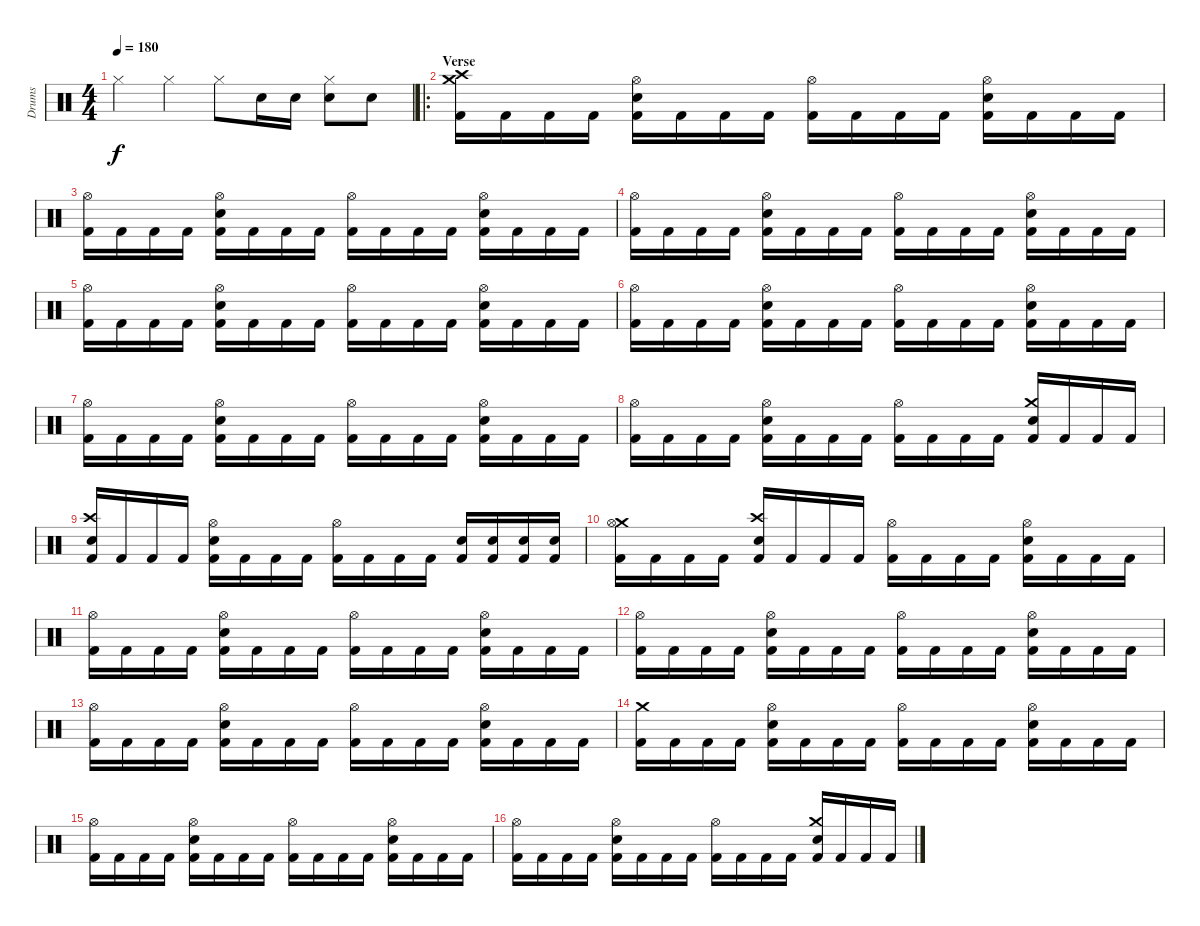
\track ("Drums" "Drums") {instrument percussion}
\staff {score}
\articulation defaults
\ts (4 4)
\tempo 180
\clef neutral
\ks c "Hi-Hat (closed)".4{dy f} "Hi-Hat (closed)".4 "Hi-Hat (closed)".8 "Snare (hit) 2".16 "Snare (hit) 2".16
("Hi-Hat (closed)" "Snare (hit) 2").8 "Snare (hit) 2".8 |
\ro
\section ("" "Verse")
("Crash medium (hit)" "Crash high (hit)" "Kick (hit) 2").16 "Kick (hit) 2".16 "Kick (hit) 2".16 "Kick (hit) 2".16 ("Hi-Hat (open)" "Snare (hit) 2" "Kick (hit) 2").16 "Kick (hit) 2".16 "Kick (hit) 2".16 "Kick (hit) 2".16 ("Hi-Hat (open)" "Kick (hit) 2").16 "Kick (hit) 2".16 "Kick (hit) 2".16 "Kick (hit) 2".16 ("Hi-Hat (open)" "Snare (hit) 2" "Kick (hit) 2").16 "Kick (hit) 2".16 "Kick (hit) 2".16 "Kick (hit) 2".16 |
("Hi-Hat (open)" "Kick (hit) 2").16 "Kick (hit) 2".16 "Kick (hit) 2".16 "Kick (hit) 2".16 ("Hi-Hat (open)" "Snare (hit) 2" "Kick (hit) 2").16 "Kick (hit) 2".16 "Kick (hit) 2".16 "Kick (hit) 2".16 ("Hi-Hat (open)" "Kick (hit) 2").16 "Kick (hit) 2".16 "Kick (hit) 2".16 "Kick (hit) 2".16 ("Hi-Hat (open)" "Snare (hit) 2" "Kick (hit) 2").16 "Kick (hit) 2".16 "Kick (hit) 2".16 "Kick (hit) 2".16 |
("Hi-Hat (open)" "Kick (hit) 2").16 "Kick (hit) 2".16 "Kick (hit) 2".16 "Kick (hit) 2".16 ("Hi-Hat (open)" "Snare (hit) 2" "Kick (hit) 2").16 "Kick (hit) 2".16 "Kick (hit) 2".16 "Kick (hit) 2".16 ("Hi-Hat (open)" "Kick (hit) 2").16 "Kick (hit) 2".16 "Kick (hit) 2".16 "Kick (hit) 2".16 ("Hi-Hat (open)" "Snare (hit) 2" "Kick (hit) 2").16 "Kick (hit) 2".16 "Kick (hit) 2".16 "Kick (hit) 2".16 |
("Hi-Hat (open)" "Kick (hit) 2").16 "Kick (hit) 2".16 "Kick (hit) 2".16 "Kick (hit) 2".16 ("Hi-Hat (open)" "Snare (hit) 2" "Kick (hit) 2").16 "Kick (hit) 2".16 "Kick (hit) 2".16 "Kick (hit) 2".16 ("Hi-Hat (open)" "Kick (hit) 2").16 "Kick (hit) 2".16 "Kick (hit) 2".16 "Kick (hit) 2".16 ("Hi-Hat (open)" "Snare (hit) 2" "Kick (hit) 2").16 "Kick (hit) 2".16 "Kick (hit) 2".16 "Kick (hit) 2".16 |
("Hi-Hat (open)" "Kick (hit) 2").16 "Kick (hit) 2".16 "Kick (hit) 2".16 "Kick (hit) 2".16 ("Hi-Hat (open)" "Snare (hit) 2" "Kick (hit) 2").16 "Kick (hit) 2".16 "Kick (hit) 2".16 "Kick (hit) 2".16 ("Hi-Hat (open)" "Kick (hit) 2").16 "Kick (hit) 2".16 "Kick (hit) 2".16 "Kick (hit) 2".16 ("Hi-Hat (open)" "Snare (hit) 2" "Kick (hit) 2").16 "Kick (hit) 2".16 "Kick (hit) 2".16 "Kick (hit) 2".16 |
("Hi-Hat (open)" "Kick (hit) 2").16 "Kick (hit) 2".16 "Kick (hit) 2".16 "Kick (hit) 2".16 ("Hi-Hat (open)" "Snare (hit) 2" "Kick (hit) 2").16 "Kick (hit) 2".16 "Kick (hit) 2".16 "Kick (hit) 2".16 ("Hi-Hat (open)" "Kick (hit) 2").16 "Kick (hit) 2".16 "Kick (hit) 2".16 "Kick (hit) 2".16 ("Hi-Hat (open)" "Snare (hit) 2" "Kick (hit) 2").16 "Kick (hit) 2".16 "Kick (hit) 2".16 "Kick (hit) 2".16 |
("Hi-Hat (open)" "Kick (hit) 2").16 "Kick (hit) 2".16 "Kick (hit) 2".16 "Kick (hit) 2".16 ("Hi-Hat (open)" "Snare (hit) 2" "Kick (hit) 2").16 "Kick (hit) 2".16 "Kick (hit) 2".16 "Kick (hit) 2".16 ("Hi-Hat (open)" "Kick (hit) 2").16 "Kick (hit) 2".16 "Kick (hit) 2".16 "Kick (hit) 2".16 ("Crash medium (hit)" "Snare (hit) 2" "Kick (hit) 2").16 "Kick (hit) 2".16 "Kick (hit) 2".16 "Kick (hit) 2".16 |
("Crash high (hit)" "Snare (hit) 2" "Kick (hit) 2").16 "Kick (hit) 2".16 "Kick (hit) 2".16 "Kick (hit) 2".16 ("Hi-Hat (open)" "Snare (hit) 2" "Kick (hit) 2").16 "Kick (hit) 2".16 "Kick (hit) 2".16 "Kick (hit) 2".16 ("Hi-Hat (open)" "Kick (hit) 2").16 "Kick (hit) 2".16 "Kick (hit) 2".16 "Kick (hit) 2".16 ("Snare (hit) 2" "Kick (hit) 2").16 ("Snare (hit) 2" "Kick (hit) 2").16 ("Snare (hit) 2" "Kick (hit) 2").16 ("Snare (hit) 2" "Kick (hit) 2").16 |
("Crash medium (hit)" "Hi-Hat (open)" "Kick (hit) 2").16 "Kick (hit) 2".16 "Kick (hit) 2".16 "Kick (hit) 2".16 ("Crash high (hit)" "Snare (hit) 2" "Kick (hit) 2").16 "Kick (hit) 2".16 "Kick (hit) 2".16 "Kick (hit) 2".16 ("Hi-Hat (open)" "Kick (hit) 2").16 "Kick (hit) 2".16 "Kick (hit) 2".16 "Kick (hit) 2".16 ("Hi-Hat (open)" "Snare (hit) 2" "Kick (hit) 2").16 "Kick (hit) 2".16 "Kick (hit) 2".16 "Kick (hit) 2".16 |
("Hi-Hat (open)" "Kick (hit) 2").16 "Kick (hit) 2".16 "Kick (hit) 2".16 "Kick (hit) 2".16 ("Hi-Hat (open)" "Snare (hit) 2" "Kick (hit) 2").16 "Kick (hit) 2".16 "Kick (hit) 2".16 "Kick (hit) 2".16 ("Hi-Hat (open)" "Kick (hit) 2").16 "Kick (hit) 2".16 "Kick (hit) 2".16 "Kick (hit) 2".16 ("Hi-Hat (open)" "Snare (hit) 2" "Kick (hit) 2").16 "Kick (hit) 2".16 "Kick (hit) 2".16 "Kick (hit) 2".16 |
("Hi-Hat (open)" "Kick (hit) 2").16 "Kick (hit) 2".16 "Kick (hit) 2".16 "Kick (hit) 2".16 ("Hi-Hat (open)" "Snare (hit) 2" "Kick (hit) 2").16 "Kick (hit) 2".16 "Kick (hit) 2".16 "Kick (hit) 2".16 ("Hi-Hat (open)" "Kick (hit) 2").16 "Kick (hit) 2".16 "Kick (hit) 2".16 "Kick (hit) 2".16 ("Hi-Hat (open)" "Snare (hit) 2" "Kick (hit) 2").16 "Kick (hit) 2".16 "Kick (hit) 2".16 "Kick (hit) 2".16 |
("Hi-Hat (open)" "Kick (hit) 2").16 "Kick (hit) 2".16 "Kick (hit) 2".16 "Kick (hit) 2".16 ("Hi-Hat (open)" "Snare (hit) 2" "Kick (hit) 2").16 "Kick (hit) 2".16 "Kick (hit) 2".16 "Kick (hit) 2".16 ("Hi-Hat (open)" "Kick (hit) 2").16 "Kick (hit) 2".16 "Kick (hit) 2".16 "Kick (hit) 2".16 ("Hi-Hat (open)" "Snare (hit) 2" "Kick (hit) 2").16 "Kick (hit) 2".16 "Kick (hit) 2".16 "Kick (hit) 2".16 |
("Crash medium (hit)" "Kick (hit) 2").16 "Kick (hit) 2".16 "Kick (hit) 2".16 "Kick (hit) 2".16 ("Hi-Hat (open)" "Snare (hit) 2" "Kick (hit) 2").16 "Kick (hit) 2".16 "Kick (hit) 2".16 "Kick (hit) 2".16 ("Hi-Hat (open)" "Kick (hit) 2").16 "Kick (hit) 2".16 "Kick (hit) 2".16 "Kick (hit) 2".16 ("Hi-Hat (open)" "Snare (hit) 2" "Kick (hit) 2").16 "Kick (hit) 2".16 "Kick (hit) 2".16 "Kick (hit) 2".16 |
("Hi-Hat (open)" "Kick (hit) 2").16 "Kick (hit) 2".16 "Kick (hit) 2".16 "Kick (hit) 2".16 ("Hi-Hat (open)" "Snare (hit) 2" "Kick (hit) 2").16 "Kick (hit) 2".16 "Kick (hit) 2".16 "Kick (hit) 2".16 ("Hi-Hat (open)" "Kick (hit) 2").16 "Kick (hit) 2".16 "Kick (hit) 2".16 "Kick (hit) 2".16 ("Hi-Hat (open)" "Snare (hit) 2" "Kick (hit) 2").16 "Kick (hit) 2".16 "Kick (hit) 2".16 "Kick (hit) 2".16 |
("Hi-Hat (open)" "Kick (hit) 2").16 "Kick (hit) 2".16 "Kick (hit) 2".16 "Kick (hit) 2".16 ("Hi-Hat (open)" "Snare (hit) 2" "Kick (hit) 2").16 "Kick (hit) 2".16 "Kick (hit) 2".16 "Kick (hit) 2".16 ("Hi-Hat (open)" "Kick (hit) 2").16 "Kick (hit) 2".16 "Kick (hit) 2".16 "Kick (hit) 2".16 ("Crash medium (hit)" "Snare (hit) 2" "Kick (hit) 2").16 "Kick (hit) 2".16 "Kick (hit) 2".16 "Kick (hit) 2".16
